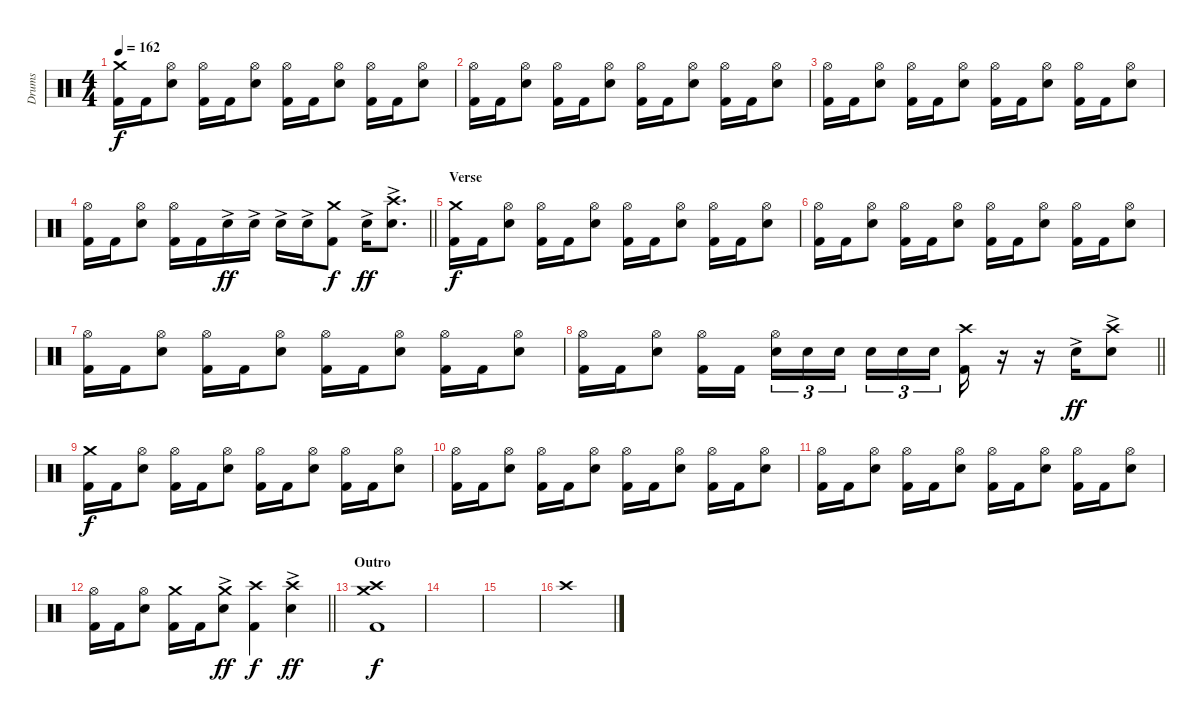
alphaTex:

\track ("Drums" "Drums") {instrument percussion}
\staff {score}
\articulation defaults
\ts (4 4)
\tempo 162
\clef neutral
\ks c
("Crash medium (hit)" "Kick (hit) 2").16{dy f} "Kick (hit) 2".16 ("Hi-Hat (open)" "Electric Snare (hit)").8 ("Hi-Hat (open)" "Kick (hit) 2").16 "Kick (hit) 2".16 ("Hi-Hat (open)" "Electric Snare (hit)").8 ("Hi-Hat (open)" "Kick (hit) 2").16 "Kick (hit) 2".16 ("Hi-Hat (open)" "Electric Snare (hit)").8 ("Hi-Hat (open)" "Kick (hit) 2").16 "Kick (hit) 2".16 ("Hi-Hat (open)" "Electric Snare (hit)").8 |
("Hi-Hat (open)" "Kick (hit) 2").16 "Kick (hit) 2".16 ("Hi-Hat (open)" "Electric Snare (hit)").8 ("Hi-Hat (open)" "Kick (hit) 2").16 "Kick (hit) 2".16 ("Hi-Hat (open)" "Electric Snare (hit)").8 ("Hi-Hat (open)" "Kick (hit) 2").16 "Kick (hit) 2".16 ("Hi-Hat (open)" "Electric Snare (hit)").8 ("Hi-Hat (open)" "Kick (hit) 2").16 "Kick (hit) 2".16 ("Hi-Hat (open)" "Electric Snare (hit)").8 |
("Hi-Hat (open)" "Kick (hit) 2").16 "Kick (hit) 2".16 ("Hi-Hat (open)" "Electric Snare (hit)").8 ("Hi-Hat (open)" "Kick (hit) 2").16 "Kick (hit) 2".16 ("Hi-Hat (open)" "Electric Snare (hit)").8 ("Hi-Hat (open)" "Kick (hit) 2").16 "Kick (hit) 2".16 ("Hi-Hat (open)" "Electric Snare (hit)").8 ("Hi-Hat (open)" "Kick (hit) 2").16 "Kick (hit) 2".16 ("Hi-Hat (open)" "Electric Snare (hit)").8 |
\barLineRight lightlight
("Hi-Hat (open)" "Kick (hit) 2").16 "Kick (hit) 2".16 ("Hi-Hat (open)" "Electric Snare (hit)").8 ("Hi-Hat (open)" "Kick (hit) 2").16 "Kick (hit) 2".16 "Electric Snare (hit)"{ac}.16{dy ff} "Electric Snare (hit)"{ac}.16 "Electric Snare (hit)"{ac}.16 "Electric Snare (hit)"{ac}.16 ("Crash medium (hit)" "Kick (hit) 2").8{dy f} "Electric Snare (hit)"{ac}.16{dy ff} ("Crash high (hit)" "Electric Snare (hit)"{ac}).8{d} |
\section ("" "Verse")
("Crash medium (hit)" "Kick (hit) 2").16{dy f} "Kick (hit) 2".16 ("Hi-Hat (open)" "Electric Snare (hit)").8 ("Hi-Hat (open)" "Kick (hit) 2").16 "Kick (hit) 2".16 ("Hi-Hat (open)" "Electric Snare (hit)").8 ("Hi-Hat (open)" "Kick (hit) 2").16 "Kick (hit) 2".16 ("Hi-Hat (open)" "Electric Snare (hit)").8 ("Hi-Hat (open)" "Kick (hit) 2").16 "Kick (hit) 2".16 ("Hi-Hat (open)" "Electric Snare (hit)").8 |
("Hi-Hat (open)" "Kick (hit) 2").16 "Kick (hit) 2".16 ("Hi-Hat (open)" "Electric Snare (hit)").8 ("Hi-Hat (open)" "Kick (hit) 2").16 "Kick (hit) 2".16 ("Hi-Hat (open)" "Electric Snare (hit)").8 ("Hi-Hat (open)" "Kick (hit) 2").16 "Kick (hit) 2".16 ("Hi-Hat (open)" "Electric Snare (hit)").8 ("Hi-Hat (open)" "Kick (hit) 2").16 "Kick (hit) 2".16 ("Hi-Hat (open)" "Electric Snare (hit)").8 |
("Hi-Hat (open)" "Kick (hit) 2").16 "Kick (hit) 2".16 ("Hi-Hat (open)" "Electric Snare (hit)").8 ("Hi-Hat (open)" "Kick (hit) 2").16 "Kick (hit) 2".16 ("Hi-Hat (open)" "Electric Snare (hit)").8 ("Hi-Hat (open)" "Kick (hit) 2").16 "Kick (hit) 2".16 ("Hi-Hat (open)" "Electric Snare (hit)").8 ("Hi-Hat (open)" "Kick (hit) 2").16 "Kick (hit) 2".16 ("Hi-Hat (open)" "Electric Snare (hit)").8 |
\barLineRight lightlight
("Hi-Hat (open)" "Kick (hit) 2").16 "Kick (hit) 2".16 ("Hi-Hat (open)" "Electric Snare (hit)").8 ("Hi-Hat (open)" "Kick (hit) 2").16 "Kick (hit) 2".16{beam splitsecondary} ("Hi-Hat (open)" "Electric Snare (hit)").16{tu (3 2)} "Electric Snare (hit)".16{tu (3 2)} "Electric Snare (hit)".16{tu (3 2)} "Electric Snare (hit)".16{tu (3 2)} "Electric Snare (hit)".16{tu (3 2)} "Electric Snare (hit)".16{tu (3 2) beam splitsecondary} ("Crash high (hit)" "Kick (hit) 2").16 r.16 r.16 "Electric Snare (hit)"{ac}.16{dy ff} ("Crash high (hit)" "Electric Snare (hit)"{ac}).8 |
("Crash medium (hit)" "Kick (hit) 2").16{dy f} "Kick (hit) 2".16 ("Hi-Hat (open)" "Electric Snare (hit)").8 ("Hi-Hat (open)" "Kick (hit) 2").16 "Kick (hit) 2".16 ("Hi-Hat (open)" "Electric Snare (hit)").8 ("Hi-Hat (open)" "Kick (hit) 2").16 "Kick (hit) 2".16 ("Hi-Hat (open)" "Electric Snare (hit)").8 ("Hi-Hat (open)" "Kick (hit) 2").16 "Kick (hit) 2".16 ("Hi-Hat (open)" "Electric Snare (hit)").8 |
("Hi-Hat (open)" "Kick (hit) 2").16 "Kick (hit) 2".16 ("Hi-Hat (open)" "Electric Snare (hit)").8 ("Hi-Hat (open)" "Kick (hit) 2").16 "Kick (hit) 2".16 ("Hi-Hat (open)" "Electric Snare (hit)").8 ("Hi-Hat (open)" "Kick (hit) 2").16 "Kick (hit) 2".16 ("Hi-Hat (open)" "Electric Snare (hit)").8 ("Hi-Hat (open)" "Kick (hit) 2").16 "Kick (hit) 2".16 ("Hi-Hat (open)" "Electric Snare (hit)").8 |
("Hi-Hat (open)" "Kick (hit) 2").16 "Kick (hit) 2".16 ("Hi-Hat (open)" "Electric Snare (hit)").8 ("Hi-Hat (open)" "Kick (hit) 2").16 "Kick (hit) 2".16 ("Hi-Hat (open)" "Electric Snare (hit)").8 ("Hi-Hat (open)" "Kick (hit) 2").16 "Kick (hit) 2".16 ("Hi-Hat (open)" "Electric Snare (hit)").8 ("Hi-Hat (open)" "Kick (hit) 2").16 "Kick (hit) 2".16 ("Hi-Hat (open)" "Electric Snare (hit)").8 |
\barLineRight lightlight
("Hi-Hat (open)" "Kick (hit) 2").16 "Kick (hit) 2".16 ("Hi-Hat (open)" "Electric Snare (hit)").8 ("Crash medium (hit)" "Kick (hit) 2").16 "Kick (hit) 2".16 ("Crash medium (hit)" "Electric Snare (hit)"{ac}).8{dy ff} ("Crash high (hit)" "Kick (hit) 2").4{dy f} ("Crash high (hit)" "Electric Snare (hit)"{ac}).4{dy ff} |
\section ("" "Outro")
("Crash high (hit)" "Crash medium (hit)" "Kick (hit) 2").1{dy f} |
|
|
"Crash high (hit)".1
